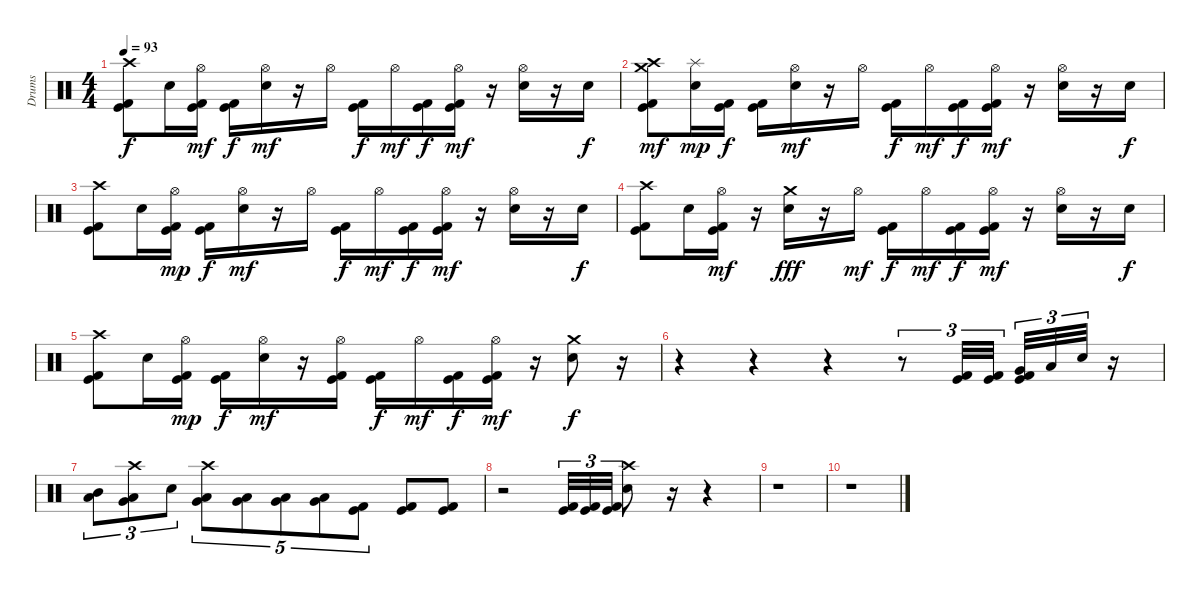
\track ("Drums" "Drums") {instrument percussion}
\staff {score}
\articulation defaults
\ts (4 4)
\tempo 93
\clef neutral
\ks c
("Crash high (hit)" "Kick (hit)" "Kick (hit) 2").8{dy f} "Electric Snare (hit)".16 ("Hi-Hat (open)" "Kick (hit)" "Kick (hit) 2").16{dy mf} ("Kick (hit)" "Kick (hit) 2").16{dy f} ("Hi-Hat (open)" "Electric Snare (hit)").16{dy mf} r.16 "Hi-Hat (open)".16 ("Kick (hit)" "Kick (hit) 2").16{dy f} "Hi-Hat (open)".16{dy mf} ("Kick (hit)" "Kick (hit) 2").16{dy f} ("Hi-Hat (open)" "Kick (hit)" "Kick (hit) 2").16{dy mf} r.16 ("Hi-Hat (open)" "Electric Snare (hit)").16 r.16 "Electric Snare (hit)".16{dy f} |
("Crash high (hit)" "Crash medium (hit)" "Kick (hit)" "Kick (hit) 2").8{dy mf} ("Splash (hit)" "Electric Snare (hit)").16{dy mp} ("Kick (hit)" "Kick (hit) 2").16{dy f} ("Kick (hit)" "Kick (hit) 2").16 ("Hi-Hat (open)" "Electric Snare (hit)").16{dy mf} r.16 "Hi-Hat (open)".16 ("Kick (hit)" "Kick (hit) 2").16{dy f} "Hi-Hat (open)".16{dy mf} ("Kick (hit)" "Kick (hit) 2").16{dy f} ("Hi-Hat (open)" "Kick (hit)" "Kick (hit) 2").16{dy mf} r.16 ("Hi-Hat (open)" "Electric Snare (hit)").16 r.16 "Electric Snare (hit)".16{dy f} |
("Crash high (hit)" "Kick (hit)" "Kick (hit) 2").8 "Electric Snare (hit)".16 ("Hi-Hat (open)" "Kick (hit)" "Kick (hit) 2").16{dy mp} ("Kick (hit)" "Kick (hit) 2").16{dy f} ("Hi-Hat (open)" "Electric Snare (hit)").16{dy mf} r.16 "Hi-Hat (open)".16 ("Kick (hit)" "Kick (hit) 2").16{dy f} "Hi-Hat (open)".16{dy mf} ("Kick (hit)" "Kick (hit) 2").16{dy f} ("Hi-Hat (open)" "Kick (hit)" "Kick (hit) 2").16{dy mf} r.16 ("Hi-Hat (open)" "Electric Snare (hit)").16 r.16 "Electric Snare (hit)".16{dy f} |
("Crash high (hit)" "Kick (hit)" "Kick (hit) 2").8 "Electric Snare (hit)".16 ("Hi-Hat (open)" "Kick (hit)" "Kick (hit) 2").16{dy mf} r.16 ("Crash medium (hit)" "Electric Snare (hit)").16{dy fff} r.16 "Hi-Hat (open)".16{dy mf} ("Kick (hit)" "Kick (hit) 2").16{dy f} "Hi-Hat (open)".16{dy mf} ("Kick (hit)" "Kick (hit) 2").16{dy f} ("Hi-Hat (open)" "Kick (hit)" "Kick (hit) 2").16{dy mf} r.16 ("Hi-Hat (open)" "Electric Snare (hit)").16 r.16 "Electric Snare (hit)".16{dy f} |
("Crash high (hit)" "Kick (hit)" "Kick (hit) 2").8 "Electric Snare (hit)".16 ("Hi-Hat (open)" "Kick (hit)" "Kick (hit) 2").16{dy mp} ("Kick (hit)" "Kick (hit) 2").16{dy f} ("Hi-Hat (open)" "Electric Snare (hit)").16{dy mf} r.16 ("Hi-Hat (open)" "Kick (hit)" "Kick (hit) 2").16 ("Kick (hit)" "Kick (hit) 2").16{dy f} "Hi-Hat (open)".16{dy mf} ("Kick (hit)" "Kick (hit) 2").16{dy f} ("Hi-Hat (open)" "Kick (hit)" "Kick (hit) 2").16{dy mf} r.16 ("Crash medium (hit)" "Electric Snare (hit)").8{dy f} r.16 |
r.4 r.4 r.4 r.8{tu (3 2)} ("Kick (hit)" "Kick (hit) 2").32{tu (3 2)} ("Kick (hit)" "Kick (hit) 2").32{tu (3 2)} ("Very Low Tom (hit)" "Kick (hit)" "Kick (hit) 2").32{tu (3 2)} "Low Floor Tom (hit)".32{tu (3 2)} "Electric Snare (hit)".32{tu (3 2)} r.16 |
("Low Tom (hit)" "Mid Tom (hit)").8{tu (3 2)} ("Crash high (hit)" "Very Low Tom (hit)" "Low Tom (hit)").8{tu (3 2)} "Electric Snare (hit)".8{tu (3 2)} ("Crash high (hit)" "Low Tom (hit)" "Very Low Tom (hit)").8{tu (5 4)} ("Low Tom (hit)" "Very Low Tom (hit)").8{tu (5 4)} ("Very Low Tom (hit)" "Low Floor Tom (hit)").8{tu (5 4)} ("Very Low Tom (hit)" "Low Floor Tom (hit)").8{tu (5 4)} ("Kick (hit)" "Kick (hit) 2").8{tu (5 4)} ("Kick (hit)" "Kick (hit) 2").8 ("Kick (hit)" "Kick (hit) 2").8 |
r.2 ("Kick (hit)" "Kick (hit) 2").32{tu (3 2)} ("Kick (hit)" "Kick (hit) 2").32{tu (3 2)} ("Kick (hit)" "Kick (hit) 2").32{tu (3 2)} ("Crash high (hit)" "Electric Snare (hit)").8 r.16 r.4 |
r.1 |
r.1
